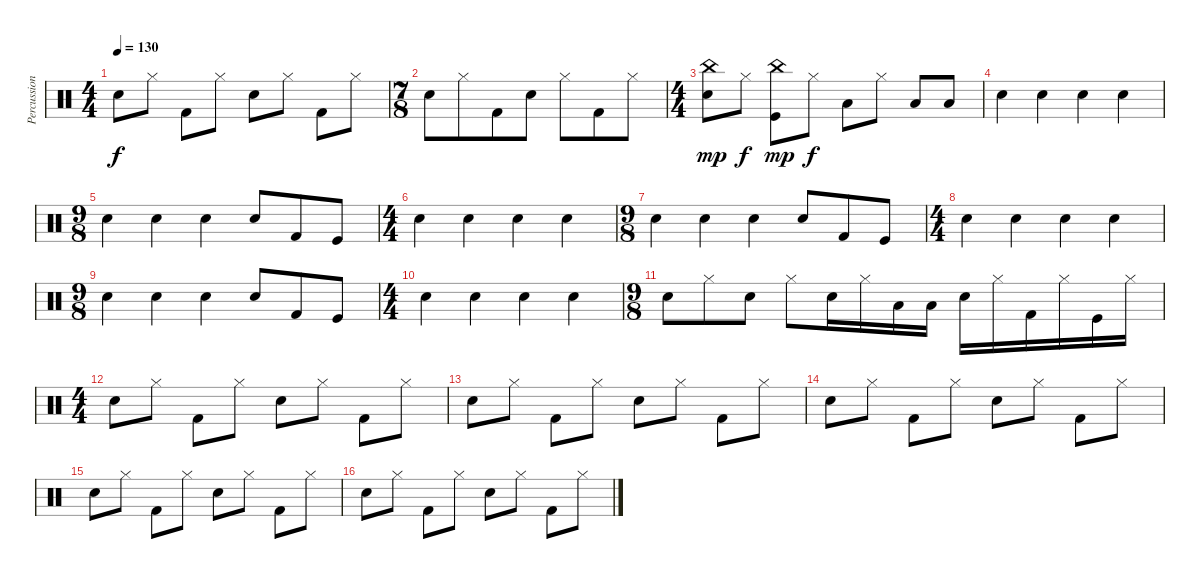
\track ("Percussion" "Percussion") {instrument percussion}
\staff {score}
\articulation defaults
\ts (4 4)
\tempo 130
\clef neutral
\ks c "Electric Snare (hit)".8{dy f} "Hi-Hat (closed)".8 "Kick (hit) 2".8 "Hi-Hat (closed)".8 "Electric Snare (hit)".8 "Hi-Hat (closed)".8 "Kick (hit) 2".8 "Hi-Hat (closed)".8
|
\ts (7 8)
"Electric Snare (hit)".8 "Hi-Hat (closed)".8 "Kick (hit) 2".8 "Electric Snare (hit)".8 "Hi-Hat (closed)".8 "Kick (hit) 2".8 "Hi-Hat (closed)".8 |
\ts (4 4)
("China (hit)" "Electric Snare (hit)").8{dy mp} "Hi-Hat (closed)".8{dy f} ("China (hit)" "Kick (hit)").8{dy mp} "Hi-Hat (closed)".8{dy f} "Low Floor Tom (hit)".8 "Hi-Hat (closed)".8 "Low Floor Tom (hit)".8 "Low Tom (hit)".8 |
"Snare (hit) 2".4 "Snare (hit) 2".4 "Snare (hit) 2".4 "Snare (hit) 2".4 |
\ts (9 8)
"Snare (hit) 2".4 "Snare (hit) 2".4 "Snare (hit) 2".4 "Snare (hit) 2".8 "Kick (hit) 2".8 "Kick (hit)".8 |
\ts (4 4)
"Snare (hit) 2".4 "Snare (hit) 2".4 "Snare (hit) 2".4 "Snare (hit) 2".4 |
\ts (9 8)
"Snare (hit) 2".4 "Snare (hit) 2".4 "Snare (hit) 2".4 "Snare (hit) 2".8 "Kick (hit) 2".8 "Kick (hit)".8 |
\ts (4 4)
"Snare (hit) 2".4 "Snare (hit) 2".4 "Snare (hit) 2".4 "Snare (hit) 2".4 |
\ts (9 8)
"Snare (hit) 2".4 "Snare (hit) 2".4 "Snare (hit) 2".4 "Snare (hit) 2".8 "Kick (hit) 2".8 "Kick (hit)".8 |
\ts (4 4)
"Snare (hit) 2".4 "Snare (hit) 2".4 "Snare (hit) 2".4 "Snare (hit) 2".4 |
\ts (9 8)
"Snare (hit) 2".8 "Hi-Hat (closed)".8 "Snare (hit) 2".8 "Hi-Hat (closed)".8 "Snare (hit) 2".16 "Hi-Hat (closed)".16 "Low Floor Tom (hit)".16 "Low Floor Tom (hit)".16 "Snare (hit) 2".16 "Hi-Hat (closed)".16 "Kick (hit) 2".16 "Hi-Hat (closed)".16 "Kick (hit)".16 "Hi-Hat (closed)".16 |
\ts (4 4)
"Electric Snare (hit)".8 "Hi-Hat (closed)".8 "Kick (hit) 2".8 "Hi-Hat (closed)".8 "Electric Snare (hit)".8 "Hi-Hat (closed)".8 "Kick (hit) 2".8 "Hi-Hat (closed)".8 |
"Electric Snare (hit)".8 "Hi-Hat (closed)".8 "Kick (hit) 2".8 "Hi-Hat (closed)".8 "Electric Snare (hit)".8 "Hi-Hat (closed)".8 "Kick (hit) 2".8 "Hi-Hat (closed)".8 |
"Electric Snare (hit)".8 "Hi-Hat (closed)".8 "Kick (hit) 2".8 "Hi-Hat (closed)".8 "Electric Snare (hit)".8 "Hi-Hat (closed)".8 "Kick (hit) 2".8 "Hi-Hat (closed)".8 |
"Electric Snare (hit)".8 "Hi-Hat (closed)".8 "Kick (hit) 2".8 "Hi-Hat (closed)".8 "Electric Snare (hit)".8 "Hi-Hat (closed)".8 "Kick (hit) 2".8 "Hi-Hat (closed)".8 |
"Electric Snare (hit)".8 "Hi-Hat (closed)".8 "Kick (hit) 2".8 "Hi-Hat (closed)".8 "Electric Snare (hit)".8 "Hi-Hat (closed)".8 "Kick (hit) 2".8 "Hi-Hat (closed)".8
